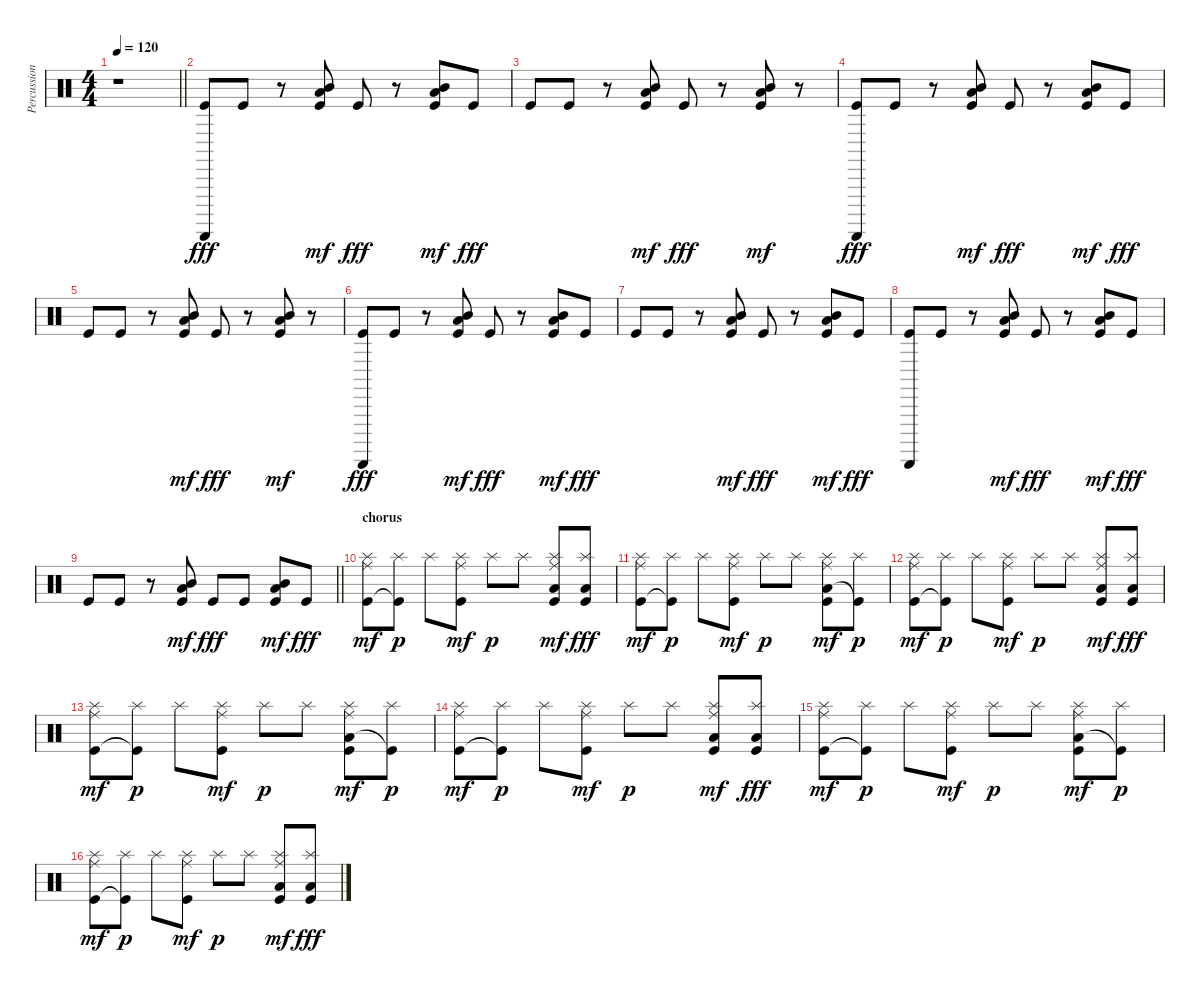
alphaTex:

\track ("Percussion" "Percussion") {instrument percussion}
\staff {score}
\articulation defaults
\ts (4 4)
\tempo 120
\clef neutral
\barLineRight lightlight
\ks c
r.1{dy fff} |
("Guiro (scrap-return)" "Kick (hit)").8 "Kick (hit)".8 r.8 ("Mid Tom (hit)" "Low Floor Tom (hit)" "Kick (hit)").8{dy mf} "Kick (hit)".8{dy fff} r.8 ("Mid Tom (hit)" "Low Floor Tom (hit)" "Kick (hit)").8{dy mf} "Kick (hit)".8{dy fff} |
"Kick (hit)".8 "Kick (hit)".8 r.8 ("Mid Tom (hit)" "Low Floor Tom (hit)" "Kick (hit)").8{dy mf} "Kick (hit)".8{dy fff} r.8 ("Mid Tom (hit)" "Low Floor Tom (hit)" "Kick (hit)").8{dy mf} r.8 |
("Guiro (scrap-return)" "Kick (hit)").8{dy fff} "Kick (hit)".8 r.8 ("Mid Tom (hit)" "Low Floor Tom (hit)" "Kick (hit)").8{dy mf} "Kick (hit)".8{dy fff} r.8 ("Mid Tom (hit)" "Low Floor Tom (hit)" "Kick (hit)").8{dy mf} "Kick (hit)".8{dy fff} |
"Kick (hit)".8 "Kick (hit)".8 r.8 ("Mid Tom (hit)" "Low Floor Tom (hit)" "Kick (hit)").8{dy mf} "Kick (hit)".8{dy fff} r.8 ("Mid Tom (hit)" "Low Floor Tom (hit)" "Kick (hit)").8{dy mf} r.8 |
("Guiro (scrap-return)" "Kick (hit)").8{dy fff} "Kick (hit)".8 r.8 ("Mid Tom (hit)" "Low Floor Tom (hit)" "Kick (hit)").8{dy mf} "Kick (hit)".8{dy fff} r.8 ("Mid Tom (hit)" "Low Floor Tom (hit)" "Kick (hit)").8{dy mf} "Kick (hit)".8{dy fff} |
"Kick (hit)".8 "Kick (hit)".8 r.8 ("Mid Tom (hit)" "Low Floor Tom (hit)" "Kick (hit)").8{dy mf} "Kick (hit)".8{dy fff} r.8 ("Mid Tom (hit)" "Low Floor Tom (hit)" "Kick (hit)").8{dy mf} "Kick (hit)".8{dy fff} |
("Guiro (scrap-return)" "Kick (hit)").8 "Kick (hit)".8 r.8 ("Mid Tom (hit)" "Low Floor Tom (hit)" "Kick (hit)").8{dy mf} "Kick (hit)".8{dy fff} r.8 ("Mid Tom (hit)" "Low Floor Tom (hit)" "Kick (hit)").8{dy mf} "Kick (hit)".8{dy fff} |
\barLineRight lightlight "Kick (hit)".8 "Kick (hit)".8
r.8 ("Mid Tom (hit)" "Low Floor Tom (hit)" "Kick (hit)").8{dy mf} "Kick (hit)".8{dy fff} "Kick (hit)".8 ("Mid Tom (hit)" "Low Floor Tom (hit)" "Kick (hit)").8{dy mf} "Kick (hit)".8{dy fff} |
\section ("" "chorus")
("Splash (hit)" "Kick (hit)" "Ride (middle)").8{dy mf} ("Splash (hit)" "Kick (hit)"{t}).8{dy p} "Splash (hit)".8 ("Splash (hit)" "Kick (hit)" "Ride (middle)").8{dy mf} "Splash (hit)".8{dy p} "Splash (hit)".8 ("Splash (hit)" "Low Tom (hit)" "Kick (hit)" "Ride (middle)").8{dy mf} ("Splash (hit)" "Low Tom (hit)" "Kick (hit)").8{dy fff} |
("Splash (hit)" "Kick (hit)" "Ride (middle)").8{dy mf} ("Splash (hit)" "Kick (hit)"{t}).8{dy p} "Splash (hit)".8 ("Splash (hit)" "Kick (hit)" "Ride (middle)").8{dy mf} "Splash (hit)".8{dy p} "Splash (hit)".8 ("Splash (hit)" "Low Tom (hit)" "Kick (hit)" "Ride (middle)").8{dy mf} ("Splash (hit)" "Kick (hit)"{t}).8{dy p} |
("Splash (hit)" "Kick (hit)" "Ride (middle)").8{dy mf} ("Splash (hit)" "Kick (hit)"{t}).8{dy p} "Splash (hit)".8 ("Splash (hit)" "Kick (hit)" "Ride (middle)").8{dy mf} "Splash (hit)".8{dy p} "Splash (hit)".8 ("Splash (hit)" "Low Tom (hit)" "Kick (hit)" "Ride (middle)").8{dy mf} ("Splash (hit)" "Low Tom (hit)" "Kick (hit)").8{dy fff} |
("Splash (hit)" "Kick (hit)" "Ride (middle)").8{dy mf} ("Splash (hit)" "Kick (hit)"{t}).8{dy p} "Splash (hit)".8 ("Splash (hit)" "Kick (hit)" "Ride (middle)").8{dy mf} "Splash (hit)".8{dy p} "Splash (hit)".8 ("Splash (hit)" "Low Tom (hit)" "Kick (hit)" "Ride (middle)").8{dy mf} ("Splash (hit)" "Kick (hit)"{t}).8{dy p} |
("Splash (hit)" "Kick (hit)" "Ride (middle)").8{dy mf} ("Splash (hit)" "Kick (hit)"{t}).8{dy p} "Splash (hit)".8 ("Splash (hit)" "Kick (hit)" "Ride (middle)").8{dy mf} "Splash (hit)".8{dy p} "Splash (hit)".8 ("Splash (hit)" "Low Tom (hit)" "Kick (hit)" "Ride (middle)").8{dy mf} ("Splash (hit)" "Low Tom (hit)" "Kick (hit)").8{dy fff} |
("Splash (hit)" "Kick (hit)" "Ride (middle)").8{dy mf} ("Splash (hit)" "Kick (hit)"{t}).8{dy p} "Splash (hit)".8 ("Splash (hit)" "Kick (hit)" "Ride (middle)").8{dy mf} "Splash (hit)".8{dy p} "Splash (hit)".8 ("Splash (hit)" "Low Tom (hit)" "Kick (hit)" "Ride (middle)").8{dy mf} ("Splash (hit)" "Kick (hit)"{t}).8{dy p} |
("Splash (hit)" "Kick (hit)" "Ride (middle)").8{dy mf} ("Splash (hit)" "Kick (hit)"{t}).8{dy p} "Splash (hit)".8 ("Splash (hit)" "Kick (hit)" "Ride (middle)").8{dy mf} "Splash (hit)".8{dy p} "Splash (hit)".8 ("Splash (hit)" "Low Tom (hit)" "Kick (hit)" "Ride (middle)").8{dy mf} ("Splash (hit)" "Low Tom (hit)" "Kick (hit)").8{dy fff}
